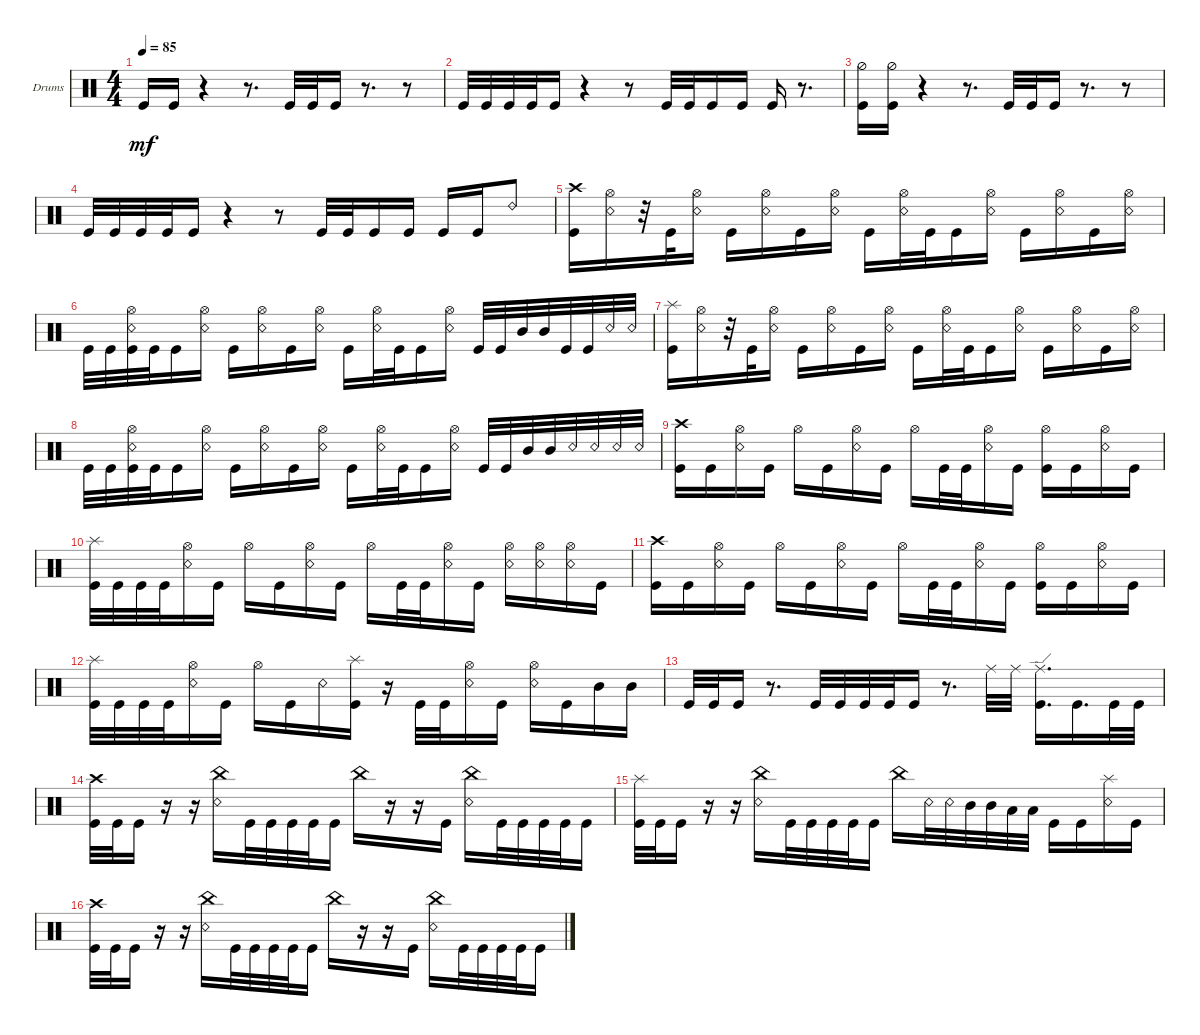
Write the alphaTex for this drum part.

\defaultSystemsLayout 4
\bracketExtendMode groupsimilarinstruments
\firstSystemTrackNameOrientation horizontal
\otherSystemsTrackNameOrientation horizontal
\track ("Drumkit" "Drums") {instrument percussion}
\staff {score}
\articulation defaults
\ts (4 4)
\tempo 85
\clef neutral
\ks c "Kick (hit)".16{dy mf} "Kick (hit)".16
r.4 r.8{d} "Kick (hit)".32 "Kick (hit)".32 "Kick (hit)".16 r.8{d} r.8 |
"Kick (hit)".32 "Kick (hit)".32 "Kick (hit)".32 "Kick (hit)".32 "Kick (hit)".16 r.4 r.8 "Kick (hit)".32 "Kick (hit)".32 "Kick (hit)".16 "Kick (hit)".16 "Kick (hit)".16 r.8{d} |
("Kick (hit)" "Hi-Hat (half)").16 ("Kick (hit)" "Hi-Hat (half)").16 r.4 r.8{d} "Kick (hit)".32 "Kick (hit)".32 "Kick (hit)".16 r.8{d} r.8 |
"Kick (hit)".32 "Kick (hit)".32 "Kick (hit)".32 "Kick (hit)".32 "Kick (hit)".16 r.4 r.8 "Kick (hit)".32 "Kick (hit)".32 "Kick (hit)".16 "Kick (hit)".16 "Kick (hit)".16 "Kick (hit)".16 "Ride (bell) 2".8 |
("Kick (hit)" "Crash high (hit)").16 ("Snare (rim shot)" "Hi-Hat (open)").16 r.32 "Kick (hit)".32 ("Snare (rim shot)" "Hi-Hat (open)").16 "Kick (hit)".16 ("Snare (rim shot)" "Hi-Hat (open)").16 "Kick (hit)".16 ("Snare (rim shot)" "Hi-Hat (open)").16 "Kick (hit)".16 ("Snare (rim shot)" "Hi-Hat (open)").32 "Kick (hit)".32 "Kick (hit)".16 ("Snare (rim shot)" "Hi-Hat (open)").16 "Kick (hit)".16 ("Snare (rim shot)" "Hi-Hat (open)").16 "Kick (hit)".16 ("Snare (rim shot)" "Hi-Hat (open)").16 |
"Kick (hit)".32 "Kick (hit)".32 ("Kick (hit)" "Hi-Hat (open)" "Snare (rim shot)").32 "Kick (hit)".32 "Kick (hit)".16 ("Snare (rim shot)" "Hi-Hat (open)").16 "Kick (hit)".16 ("Snare (rim shot)" "Hi-Hat (open)").16 "Kick (hit)".16 ("Snare (rim shot)" "Hi-Hat (open)").16 "Kick (hit)".16 ("Snare (rim shot)" "Hi-Hat (open)").32 "Kick (hit)".32 "Kick (hit)".16 ("Snare (rim shot)" "Hi-Hat (open)").16 "Kick (hit)".32 "Kick (hit)".32 "Mid Tom (hit)".32 "Mid Tom (hit)".32 "Kick (hit)".32 "Kick (hit)".32 "Snare (rim shot)".32 "Snare (rim shot)".32 |
("Kick (hit)" "Splash (hit)").16 ("Snare (rim shot)" "Hi-Hat (open)").16 r.32 "Kick (hit)".32 ("Snare (rim shot)" "Hi-Hat (open)").16 "Kick (hit)".16 ("Snare (rim shot)" "Hi-Hat (open)").16 "Kick (hit)".16 ("Snare (rim shot)" "Hi-Hat (open)").16 "Kick (hit)".16 ("Snare (rim shot)" "Hi-Hat (open)").32 "Kick (hit)".32 "Kick (hit)".16 ("Snare (rim shot)" "Hi-Hat (open)").16 "Kick (hit)".16 ("Snare (rim shot)" "Hi-Hat (open)").16 "Kick (hit)".16 ("Snare (rim shot)" "Hi-Hat (open)").16 |
"Kick (hit)".32 "Kick (hit)".32 ("Kick (hit)" "Hi-Hat (open)" "Snare (rim shot)").32 "Kick (hit)".32 "Kick (hit)".16 ("Snare (rim shot)" "Hi-Hat (open)").16 "Kick (hit)".16 ("Snare (rim shot)" "Hi-Hat (open)").16 "Kick (hit)".16 ("Snare (rim shot)" "Hi-Hat (open)").16 "Kick (hit)".16 ("Snare (rim shot)" "Hi-Hat (open)").32 "Kick (hit)".32 "Kick (hit)".16 ("Snare (rim shot)" "Hi-Hat (open)").16 "Kick (hit)".32 "Kick (hit)".32 "Mid Tom (hit)".32 "Mid Tom (hit)".32 "Snare (rim shot)".32 "Snare (rim shot)".32 "Snare (rim shot)".32 "Snare (rim shot)".32 |
("Kick (hit)" "Crash high (hit)").16 "Kick (hit)".16 ("Snare (rim shot)" "Hi-Hat (open)").16 "Kick (hit)".16 "Hi-Hat (open)".16 "Kick (hit)".16 ("Snare (rim shot)" "Hi-Hat (open)").16 "Kick (hit)".16 "Hi-Hat (open)".16 "Kick (hit)".32 "Kick (hit)".32 ("Snare (rim shot)" "Hi-Hat (open)").16 "Kick (hit)".16 ("Kick (hit)" "Hi-Hat (open)").16 "Kick (hit)".16 ("Snare (rim shot)" "Hi-Hat (open)").16 "Kick (hit)".16 |
("Kick (hit)" "Splash (hit)").32 "Kick (hit)".32 "Kick (hit)".32 "Kick (hit)".32 ("Snare (rim shot)" "Hi-Hat (open)").16 "Kick (hit)".16 "Hi-Hat (open)".16 "Kick (hit)".16 ("Snare (rim shot)" "Hi-Hat (open)").16 "Kick (hit)".16 "Hi-Hat (open)".16 "Kick (hit)".32 "Kick (hit)".32 ("Snare (rim shot)" "Hi-Hat (open)").16 "Kick (hit)".16 ("Snare (rim shot)" "Hi-Hat (open)").16 ("Snare (rim shot)" "Hi-Hat (open)").16 ("Snare (rim shot)" "Hi-Hat (open)").16 "Kick (hit)".16 |
("Kick (hit)" "Crash high (hit)").16 "Kick (hit)".16 ("Snare (rim shot)" "Hi-Hat (open)").16 "Kick (hit)".16 "Hi-Hat (open)".16 "Kick (hit)".16 ("Snare (rim shot)" "Hi-Hat (open)").16 "Kick (hit)".16 "Hi-Hat (open)".16 "Kick (hit)".32 "Kick (hit)".32 ("Snare (rim shot)" "Hi-Hat (open)").16 "Kick (hit)".16 ("Kick (hit)" "Hi-Hat (open)").16 "Kick (hit)".16 ("Snare (rim shot)" "Hi-Hat (open)").16 "Kick (hit)".16 |
("Kick (hit)" "Splash (hit)").32 "Kick (hit)".32 "Kick (hit)".32 "Kick (hit)".32 ("Snare (rim shot)" "Hi-Hat (open)").16 "Kick (hit)".16 "Hi-Hat (open)".16 "Kick (hit)".16 "Snare (rim shot)".16 ("Kick (hit)" "Splash (hit)").16 r.16 "Kick (hit)".32 "Kick (hit)".32 ("Snare (rim shot)" "Hi-Hat (open)").16 "Kick (hit)".16 ("Snare (rim shot)" "Hi-Hat (open)").16 "Kick (hit)".16 "Mid Tom (hit)".16 "Mid Tom (hit)".16 |
"Kick (hit)".32 "Kick (hit)".32 "Kick (hit)".16 r.8{d} "Kick (hit)".32 "Kick (hit)".32 "Kick (hit)".32 "Kick (hit)".32 "Kick (hit)".16 r.8{d} "Ride (middle)".32 "Ride (middle)".32 ("Ride (edge)" "Kick (hit)").16{d} "Kick (hit)".16{d} "Kick (hit)".32 "Kick (hit)".32 |
("Kick (hit)" "Crash high (hit)").32 "Kick (hit)".32 "Kick (hit)".16 r.16 r.16 ("Snare (rim shot)" "China (hit)").16 "Kick (hit)".32 "Kick (hit)".32 "Kick (hit)".32 "Kick (hit)".32 "Kick (hit)".16 "China (hit)".16 r.16 r.16 "Kick (hit)".16 ("Snare (rim shot)" "China (hit)").16 "Kick (hit)".32 "Kick (hit)".32 "Kick (hit)".32 "Kick (hit)".32 "Kick (hit)".16 |
("Kick (hit)" "Splash (hit)").32 "Kick (hit)".32 "Kick (hit)".16 r.16 r.16 ("Snare (rim shot)" "China (hit)").16 "Kick (hit)".32 "Kick (hit)".32 "Kick (hit)".32 "Kick (hit)".32 "Kick (hit)".16 "China (hit)".16 "Snare (rim shot)".32 "Snare (rim shot)".32 "Mid Tom (hit)".32 "Mid Tom (hit)".32 "Low Tom (hit)".32 "Low Tom (hit)".32 "Kick (hit)".16 "Kick (hit)".16 ("Snare (rim shot)" "Splash (hit)").16 "Kick (hit)".16 |
("Kick (hit)" "Crash high (hit)").32 "Kick (hit)".32 "Kick (hit)".16 r.16 r.16 ("Snare (rim shot)" "China (hit)").16 "Kick (hit)".32 "Kick (hit)".32 "Kick (hit)".32 "Kick (hit)".32 "Kick (hit)".16 "China (hit)".16 r.16 r.16 "Kick (hit)".16 ("Snare (rim shot)" "China (hit)").16 "Kick (hit)".32 "Kick (hit)".32 "Kick (hit)".32 "Kick (hit)".32 "Kick (hit)".16
